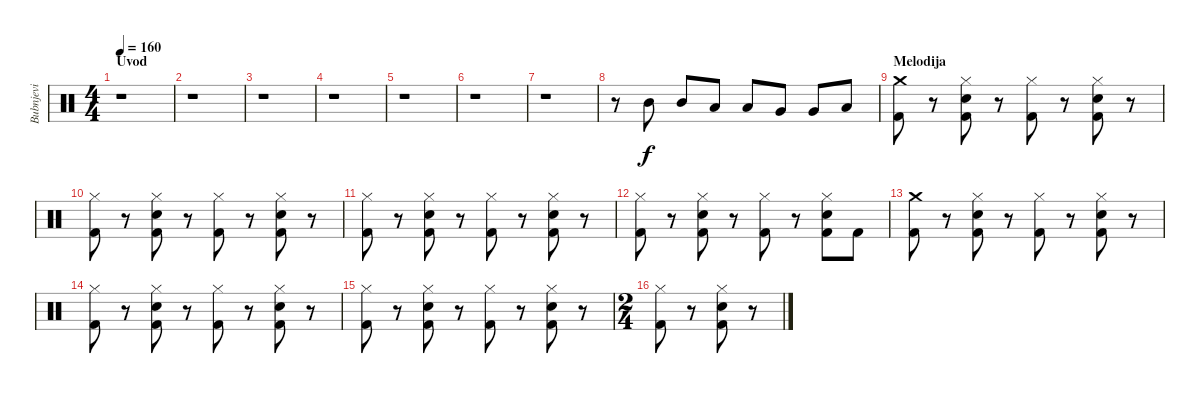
\track ("Bubnjevi" "Bubnjevi") {instrument percussion}
\staff {score}
\articulation defaults
\ts (4 4)
\section ("" "Uvod")
\tempo 160
\clef neutral
\ks c
r.1{dy f} |
r.1 |
r.1 |
r.1 |
r.1 |
r.1 |
r.1 |
r.8 "Mid Tom (hit)".8 "Mid Tom (hit)".8 "Low Tom (hit)".8 "Low Tom (hit)".8 "Very Low Tom (hit)".8 "Very Low Tom (hit)".8 "Low Floor Tom (hit)".8 |
\section ("" "Melodija")
("Crash medium (hit)" "Kick (hit) 2").8 r.8 ("Electric Snare (hit)" "Hi-Hat (closed)" "Kick (hit) 2").8 r.8 ("Hi-Hat (closed)" "Kick (hit) 2").8 r.8 ("Electric Snare (hit)" "Hi-Hat (closed)" "Kick (hit) 2").8 r.8 |
("Hi-Hat (closed)" "Kick (hit) 2").8 r.8 ("Electric Snare (hit)" "Hi-Hat (closed)" "Kick (hit) 2").8 r.8 ("Hi-Hat (closed)" "Kick (hit) 2").8 r.8 ("Electric Snare (hit)" "Hi-Hat (closed)" "Kick (hit) 2").8 r.8 |
("Hi-Hat (closed)" "Kick (hit) 2").8 r.8 ("Electric Snare (hit)" "Hi-Hat (closed)" "Kick (hit) 2").8 r.8 ("Hi-Hat (closed)" "Kick (hit) 2").8 r.8 ("Electric Snare (hit)" "Hi-Hat (closed)" "Kick (hit) 2").8 r.8 |
("Hi-Hat (closed)" "Kick (hit) 2").8 r.8 ("Electric Snare (hit)" "Hi-Hat (closed)" "Kick (hit) 2").8 r.8 ("Hi-Hat (closed)" "Kick (hit) 2").8 r.8 ("Electric Snare (hit)" "Hi-Hat (closed)" "Kick (hit) 2").8 "Kick (hit) 2".8 |
("Crash medium (hit)" "Kick (hit) 2").8 r.8 ("Electric Snare (hit)" "Hi-Hat (closed)" "Kick (hit) 2").8 r.8 ("Hi-Hat (closed)" "Kick (hit) 2").8 r.8 ("Electric Snare (hit)" "Hi-Hat (closed)" "Kick (hit) 2").8 r.8 |
("Hi-Hat (closed)" "Kick (hit) 2").8 r.8 ("Electric Snare (hit)" "Hi-Hat (closed)" "Kick (hit) 2").8 r.8 ("Hi-Hat (closed)" "Kick (hit) 2").8 r.8 ("Electric Snare (hit)" "Hi-Hat (closed)" "Kick (hit) 2").8 r.8 |
("Hi-Hat (closed)" "Kick (hit) 2").8 r.8 ("Electric Snare (hit)" "Hi-Hat (closed)" "Kick (hit) 2").8 r.8 ("Hi-Hat (closed)" "Kick (hit) 2").8 r.8 ("Electric Snare (hit)" "Hi-Hat (closed)" "Kick (hit) 2").8 r.8 |
\ts (2 4)
("Hi-Hat (closed)" "Kick (hit) 2").8 r.8 ("Electric Snare (hit)" "Hi-Hat (closed)" "Kick (hit) 2").8 r.8
